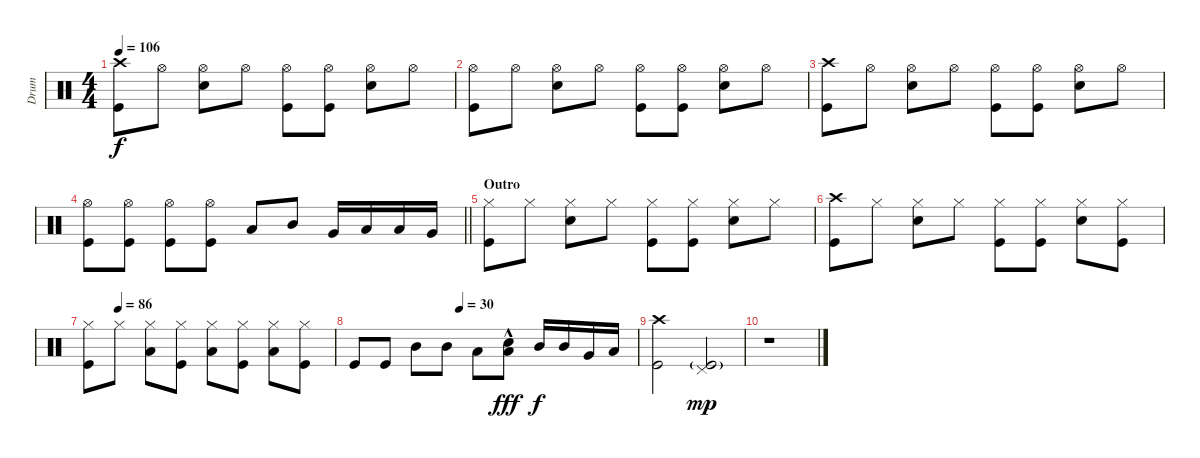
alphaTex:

\track ("Drum" "Drum") {instrument percussion}
\staff {score}
\articulation defaults
\ts (4 4)
\tempo 106
\clef neutral
\ks c
("Crash high (hit)" "Kick (hit)").8{dy f} "Hi-Hat (open)".8 ("Hi-Hat (open)" "Electric Snare (hit)").8 "Hi-Hat (open)".8 ("Hi-Hat (open)" "Kick (hit)").8 ("Hi-Hat (open)" "Kick (hit)").8 ("Hi-Hat (open)" "Electric Snare (hit)").8 "Hi-Hat (open)".8 |
("Hi-Hat (open)" "Kick (hit)").8 "Hi-Hat (open)".8 ("Hi-Hat (open)" "Electric Snare (hit)").8 "Hi-Hat (open)".8 ("Hi-Hat (open)" "Kick (hit)").8 ("Hi-Hat (open)" "Kick (hit)").8 ("Hi-Hat (open)" "Electric Snare (hit)").8 "Hi-Hat (open)".8 |
("Crash high (hit)" "Kick (hit)").8 "Hi-Hat (open)".8 ("Hi-Hat (open)" "Electric Snare (hit)").8 "Hi-Hat (open)".8 ("Hi-Hat (open)" "Kick (hit)").8 ("Hi-Hat (open)" "Kick (hit)").8 ("Hi-Hat (open)" "Electric Snare (hit)").8 "Hi-Hat (open)".8 |
\barLineRight lightlight
("Hi-Hat (open)" "Kick (hit)").8 ("Hi-Hat (open)" "Kick (hit)").8 ("Hi-Hat (open)" "Kick (hit)").8 ("Hi-Hat (open)" "Kick (hit)").8 "Low Tom (hit)".8 "Mid Tom (hit)".8 "Very Low Tom (hit)".16 "Low Floor Tom (hit)".16 "Low Tom (hit)".16 "Very Low Tom (hit)".16 |
\section ("" "Outro")
("Hi-Hat (closed)" "Kick (hit)").8 "Hi-Hat (closed)".8 ("Hi-Hat (closed)" "Electric Snare (hit)").8 "Hi-Hat (closed)".8 ("Hi-Hat (closed)" "Kick (hit)").8 ("Hi-Hat (closed)" "Kick (hit)").8 ("Hi-Hat (closed)" "Electric Snare (hit)").8 "Hi-Hat (closed)".8 |
("Crash high (hit)" "Kick (hit)").8 "Hi-Hat (closed)".8 ("Hi-Hat (closed)" "Electric Snare (hit)").8 "Hi-Hat (closed)".8 ("Hi-Hat (closed)" "Kick (hit)").8 ("Hi-Hat (closed)" "Kick (hit)").8 ("Hi-Hat (closed)" "Electric Snare (hit)").8 ("Hi-Hat (closed)" "Kick (hit)").8 |
\tempo (86 0.125)
("Hi-Hat (closed)" "Kick (hit)").8 "Hi-Hat (closed)".8 ("Hi-Hat (closed)" "Low Tom (hit)").8 ("Hi-Hat (closed)" "Kick (hit)").8 ("Hi-Hat (closed)" "Low Tom (hit)").8 ("Hi-Hat (closed)" "Kick (hit)").8 ("Hi-Hat (closed)" "Low Tom (hit)").8 ("Hi-Hat (closed)" "Kick (hit)").8 |
\tempo (30 0.375)
"Kick (hit)".8 "Kick (hit)".8 "Mid Tom (hit)".8 "Mid Tom (hit)".8 "Low Tom (hit)".8 ("Low Tom (hit)"{hac} "Electric Snare (hit)").8{dy fff} "Mid Tom (hit)".16{dy f} "Mid Tom (hit)".16 "Very Low Tom (hit)".16 "Low Tom (hit)".16 |
("Crash high (hit)" "Kick (hit)").2 ("Pedal Hi-Hat (hit)" "Kick (hit)"{g}).2{dy mp} |
r.1
